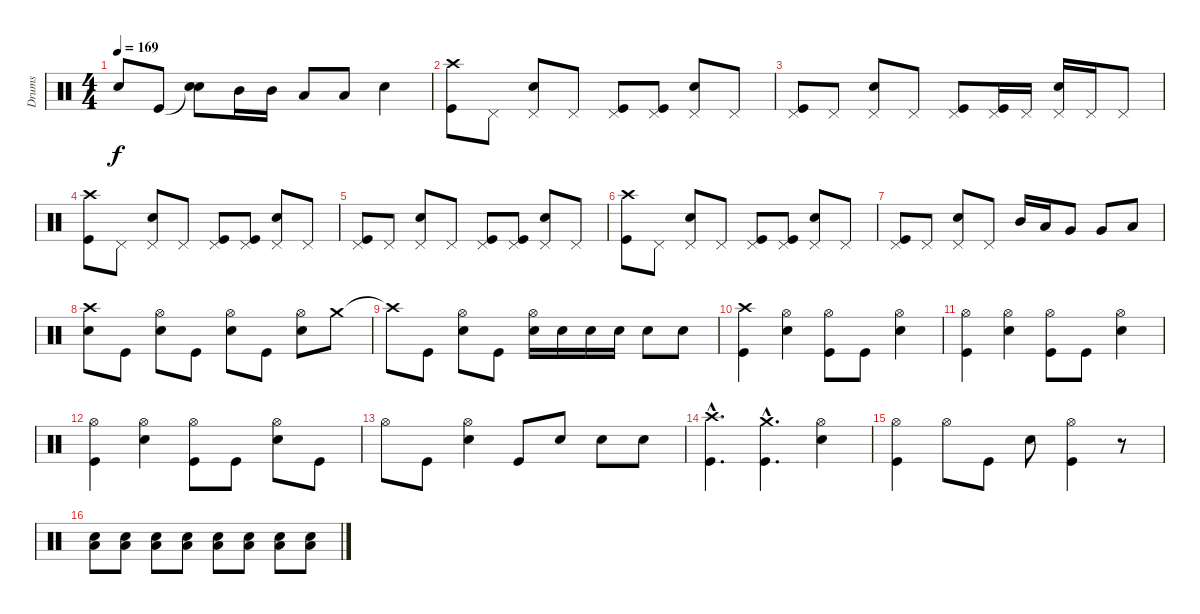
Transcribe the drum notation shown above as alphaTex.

\track ("Drums" "Drums") {instrument percussion}
\staff {score}
\articulation defaults
\ts (4 4)
\tempo 169
\clef neutral
\ks c "Snare (hit)"{t}.8{dy f} "Kick (hit)".8
("Snare (hit)"{t} "Snare (hit) 2").8 "Mid Tom (hit)".16 "Mid Tom (hit)".16 "Low Tom (hit)".8 "Low Tom (hit)".8 "Snare (hit) 2".4 |
("Crash high (hit)" "Kick (hit)").8 "Pedal Hi-Hat (hit)".8 ("Pedal Hi-Hat (hit)" "Snare (hit) 2").8 "Pedal Hi-Hat (hit)".8 ("Pedal Hi-Hat (hit)" "Kick (hit)").8 ("Pedal Hi-Hat (hit)" "Kick (hit)").8 ("Pedal Hi-Hat (hit)" "Snare (hit) 2").8 "Pedal Hi-Hat (hit)".8 |
("Pedal Hi-Hat (hit)" "Kick (hit)").8 "Pedal Hi-Hat (hit)".8 ("Pedal Hi-Hat (hit)" "Snare (hit) 2").8 "Pedal Hi-Hat (hit)".8 ("Pedal Hi-Hat (hit)" "Kick (hit)").8 ("Pedal Hi-Hat (hit)" "Kick (hit)").16 "Pedal Hi-Hat (hit)".16 ("Pedal Hi-Hat (hit)" "Snare (hit) 2").16 "Pedal Hi-Hat (hit)".16 "Pedal Hi-Hat (hit)".8 |
("Crash high (hit)" "Kick (hit)").8 "Pedal Hi-Hat (hit)".8 ("Pedal Hi-Hat (hit)" "Snare (hit) 2").8 "Pedal Hi-Hat (hit)".8 ("Pedal Hi-Hat (hit)" "Kick (hit)").8 ("Pedal Hi-Hat (hit)" "Kick (hit)").8 ("Pedal Hi-Hat (hit)" "Snare (hit) 2").8 "Pedal Hi-Hat (hit)".8 |
("Pedal Hi-Hat (hit)" "Kick (hit)").8 "Pedal Hi-Hat (hit)".8 ("Pedal Hi-Hat (hit)" "Snare (hit) 2").8 "Pedal Hi-Hat (hit)".8 ("Pedal Hi-Hat (hit)" "Kick (hit)").8 ("Pedal Hi-Hat (hit)" "Kick (hit)").8 ("Pedal Hi-Hat (hit)" "Snare (hit) 2").8 "Pedal Hi-Hat (hit)".8 |
("Crash high (hit)" "Kick (hit)").8 "Pedal Hi-Hat (hit)".8 ("Pedal Hi-Hat (hit)" "Snare (hit) 2").8 "Pedal Hi-Hat (hit)".8 ("Pedal Hi-Hat (hit)" "Kick (hit)").8 ("Pedal Hi-Hat (hit)" "Kick (hit)").8 ("Pedal Hi-Hat (hit)" "Snare (hit) 2").8 "Pedal Hi-Hat (hit)".8 |
("Pedal Hi-Hat (hit)" "Kick (hit)").8 "Pedal Hi-Hat (hit)".8 ("Pedal Hi-Hat (hit)" "Snare (hit) 2").8 "Pedal Hi-Hat (hit)".8 "Mid Tom (hit)".16 "Low Tom (hit)".16 "Very Low Tom (hit)".8 "Very Low Tom (hit)".8 "Low Floor Tom (hit)".8 |
("Crash high (hit)" "Snare (hit) 2").8 "Kick (hit)".8 ("Hi-Hat (open)" "Snare (hit) 2").8 "Kick (hit)".8 ("Hi-Hat (open)" "Snare (hit) 2").8 "Kick (hit)".8 ("Hi-Hat (open)" "Snare (hit) 2").8 "Crash medium (hit)".8 |
"Crash high (hit)"{t}.8 "Kick (hit)".8 ("Hi-Hat (open)" "Snare (hit) 2").8 "Kick (hit)".8 ("Hi-Hat (open)" "Snare (hit) 2").16 "Snare (hit) 2".16 "Snare (hit) 2".16 "Snare (hit) 2".16 "Snare (hit) 2".8 "Snare (hit) 2".8 |
("Crash high (hit)" "Kick (hit)").4 ("Hi-Hat (open)" "Snare (hit) 2").4 ("Hi-Hat (open)" "Kick (hit)").8 "Kick (hit)".8 ("Hi-Hat (open)" "Snare (hit) 2").4 |
("Hi-Hat (open)" "Kick (hit)").4 ("Hi-Hat (open)" "Snare (hit) 2").4 ("Hi-Hat (open)" "Kick (hit)").8 "Kick (hit)".8 ("Hi-Hat (open)" "Snare (hit) 2").4 |
("Hi-Hat (open)" "Kick (hit)").4 ("Hi-Hat (open)" "Snare (hit) 2").4 ("Hi-Hat (open)" "Kick (hit)").8 "Kick (hit)".8 ("Hi-Hat (open)" "Snare (hit) 2").8 "Kick (hit)".8 |
"Hi-Hat (open)".8 "Kick (hit)".8 ("Hi-Hat (open)" "Snare (hit) 2").4 "Kick (hit)".8 "Snare (hit) 2".8 "Snare (hit) 2".8 "Snare (hit) 2".8 |
("Crash high (hit)"{hac} "Kick (hit)"{hac}).4{d} ("Crash medium (hit)"{hac} "Kick (hit)"{hac}).4{d} ("Hi-Hat (open)" "Snare (hit) 2").4 |
("Hi-Hat (open)" "Kick (hit)").4 "Hi-Hat (open)".8 "Kick (hit)".8 "Snare (hit) 2".8 ("Hi-Hat (open)" "Kick (hit)").4 r.8{volume 3} |
("Low Floor Tom (hit)" "Snare (hit) 2").8{volume 8} ("Low Floor Tom (hit)" "Snare (hit) 2").8 ("Low Floor Tom (hit)" "Snare (hit) 2").8 ("Low Floor Tom (hit)" "Snare (hit) 2").8 ("Low Floor Tom (hit)" "Snare (hit) 2").8 ("Low Floor Tom (hit)" "Snare (hit) 2").8 ("Low Floor Tom (hit)" "Snare (hit) 2").8 ("Low Floor Tom (hit)" "Snare (hit) 2").8
